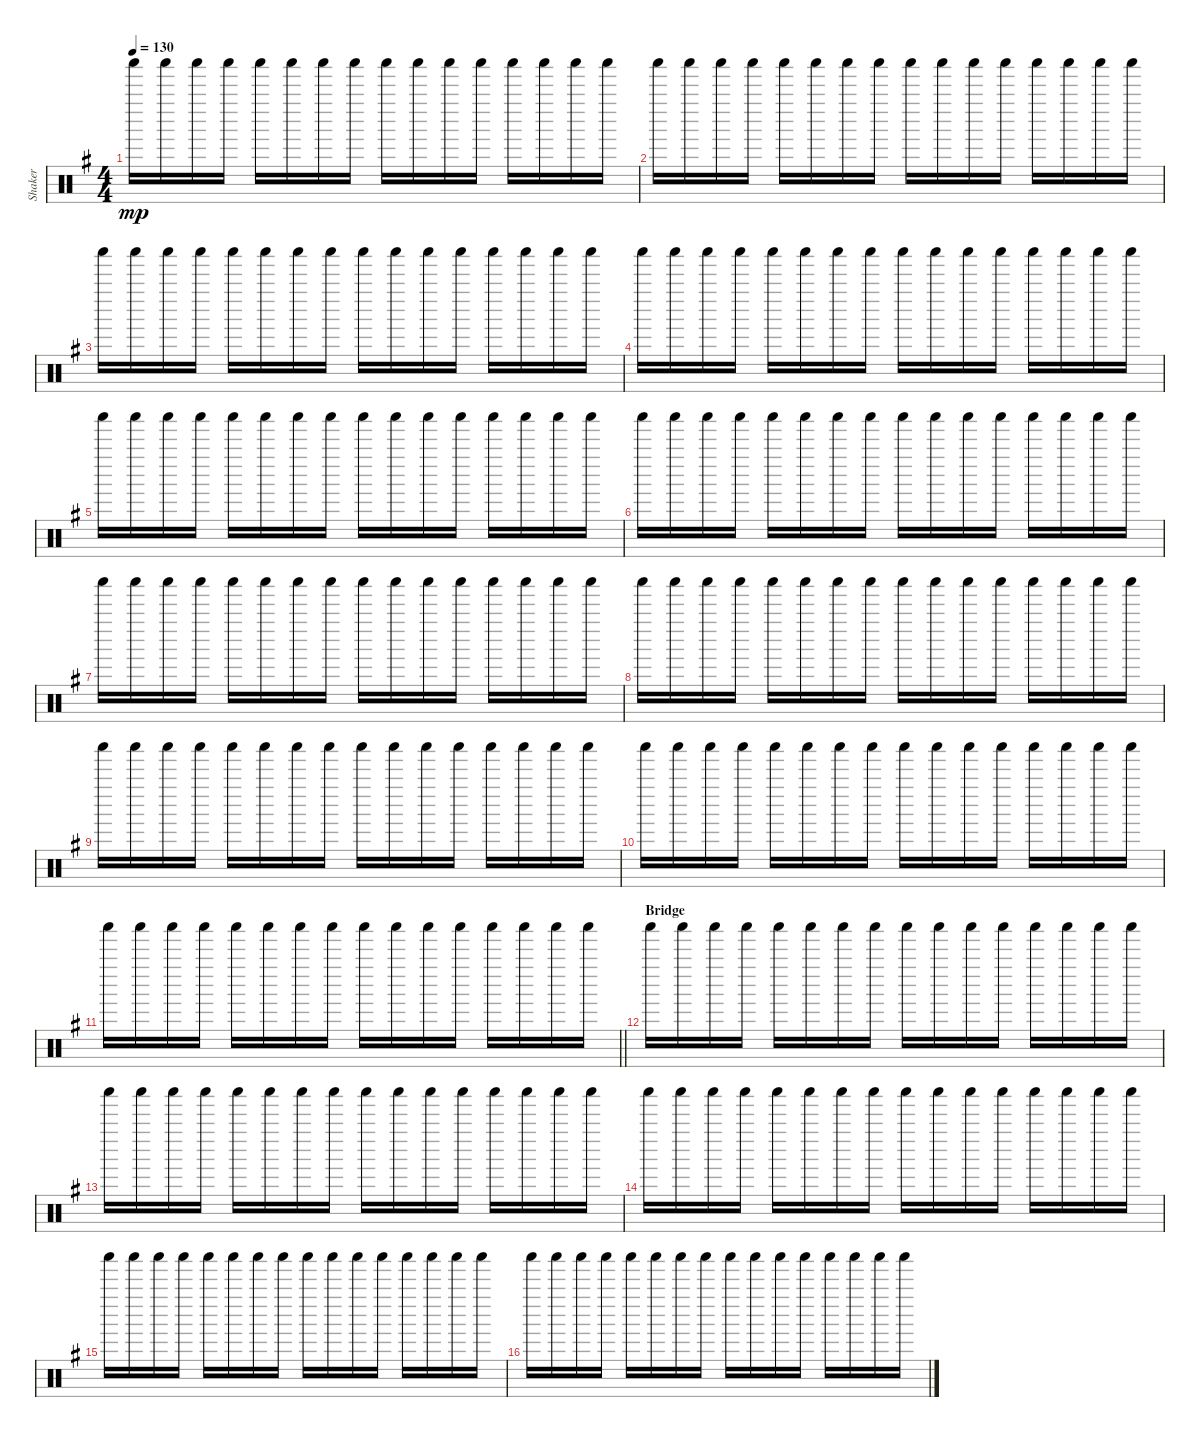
\track ("Shaker" "Shaker") {instrument percussion}
\staff {score}
\articulation defaults
\ts (4 4)
\tempo 130
\clef neutral
\ks g "Shaker (hit)".16{dy mp} "Shaker (hit)".16 "Shaker (hit)".16 "Shaker (hit)".16 "Shaker (hit)".16 "Shaker (hit)".16 "Shaker (hit)".16 "Shaker (hit)".16 "Shaker (hit)".16 "Shaker (hit)".16 "Shaker (hit)".16 "Shaker (hit)".16 "Shaker (hit)".16 "Shaker (hit)".16 "Shaker (hit)".16 "Shaker (hit)".16
|
"Shaker (hit)".16 "Shaker (hit)".16 "Shaker (hit)".16 "Shaker (hit)".16 "Shaker (hit)".16 "Shaker (hit)".16 "Shaker (hit)".16 "Shaker (hit)".16 "Shaker (hit)".16 "Shaker (hit)".16 "Shaker (hit)".16 "Shaker (hit)".16 "Shaker (hit)".16 "Shaker (hit)".16 "Shaker (hit)".16 "Shaker (hit)".16 |
"Shaker (hit)".16 "Shaker (hit)".16 "Shaker (hit)".16 "Shaker (hit)".16 "Shaker (hit)".16 "Shaker (hit)".16 "Shaker (hit)".16 "Shaker (hit)".16 "Shaker (hit)".16 "Shaker (hit)".16 "Shaker (hit)".16 "Shaker (hit)".16 "Shaker (hit)".16 "Shaker (hit)".16 "Shaker (hit)".16 "Shaker (hit)".16 |
"Shaker (hit)".16 "Shaker (hit)".16 "Shaker (hit)".16 "Shaker (hit)".16 "Shaker (hit)".16 "Shaker (hit)".16 "Shaker (hit)".16 "Shaker (hit)".16 "Shaker (hit)".16 "Shaker (hit)".16 "Shaker (hit)".16 "Shaker (hit)".16 "Shaker (hit)".16 "Shaker (hit)".16 "Shaker (hit)".16 "Shaker (hit)".16 |
"Shaker (hit)".16 "Shaker (hit)".16 "Shaker (hit)".16 "Shaker (hit)".16 "Shaker (hit)".16 "Shaker (hit)".16 "Shaker (hit)".16 "Shaker (hit)".16 "Shaker (hit)".16 "Shaker (hit)".16 "Shaker (hit)".16 "Shaker (hit)".16 "Shaker (hit)".16 "Shaker (hit)".16 "Shaker (hit)".16 "Shaker (hit)".16 |
"Shaker (hit)".16 "Shaker (hit)".16 "Shaker (hit)".16 "Shaker (hit)".16 "Shaker (hit)".16 "Shaker (hit)".16 "Shaker (hit)".16 "Shaker (hit)".16 "Shaker (hit)".16 "Shaker (hit)".16 "Shaker (hit)".16 "Shaker (hit)".16 "Shaker (hit)".16 "Shaker (hit)".16 "Shaker (hit)".16 "Shaker (hit)".16 |
"Shaker (hit)".16 "Shaker (hit)".16 "Shaker (hit)".16 "Shaker (hit)".16 "Shaker (hit)".16 "Shaker (hit)".16 "Shaker (hit)".16 "Shaker (hit)".16 "Shaker (hit)".16 "Shaker (hit)".16 "Shaker (hit)".16 "Shaker (hit)".16 "Shaker (hit)".16 "Shaker (hit)".16 "Shaker (hit)".16 "Shaker (hit)".16 |
"Shaker (hit)".16 "Shaker (hit)".16 "Shaker (hit)".16 "Shaker (hit)".16 "Shaker (hit)".16 "Shaker (hit)".16 "Shaker (hit)".16 "Shaker (hit)".16 "Shaker (hit)".16 "Shaker (hit)".16 "Shaker (hit)".16 "Shaker (hit)".16 "Shaker (hit)".16 "Shaker (hit)".16 "Shaker (hit)".16 "Shaker (hit)".16 |
"Shaker (hit)".16 "Shaker (hit)".16 "Shaker (hit)".16 "Shaker (hit)".16 "Shaker (hit)".16 "Shaker (hit)".16 "Shaker (hit)".16 "Shaker (hit)".16 "Shaker (hit)".16 "Shaker (hit)".16 "Shaker (hit)".16 "Shaker (hit)".16 "Shaker (hit)".16 "Shaker (hit)".16 "Shaker (hit)".16 "Shaker (hit)".16 |
"Shaker (hit)".16 "Shaker (hit)".16 "Shaker (hit)".16 "Shaker (hit)".16 "Shaker (hit)".16 "Shaker (hit)".16 "Shaker (hit)".16 "Shaker (hit)".16 "Shaker (hit)".16 "Shaker (hit)".16 "Shaker (hit)".16 "Shaker (hit)".16 "Shaker (hit)".16 "Shaker (hit)".16 "Shaker (hit)".16 "Shaker (hit)".16 |
\barLineRight lightlight "Shaker (hit)".16 "Shaker (hit)".16 "Shaker (hit)".16 "Shaker (hit)".16 "Shaker (hit)".16 "Shaker (hit)".16 "Shaker (hit)".16 "Shaker (hit)".16 "Shaker (hit)".16 "Shaker (hit)".16 "Shaker (hit)".16 "Shaker (hit)".16 "Shaker (hit)".16 "Shaker (hit)".16 "Shaker (hit)".16 "Shaker (hit)".16
|
\section ("" "Bridge")
"Shaker (hit)".16 "Shaker (hit)".16 "Shaker (hit)".16 "Shaker (hit)".16 "Shaker (hit)".16 "Shaker (hit)".16 "Shaker (hit)".16 "Shaker (hit)".16 "Shaker (hit)".16 "Shaker (hit)".16 "Shaker (hit)".16 "Shaker (hit)".16 "Shaker (hit)".16 "Shaker (hit)".16 "Shaker (hit)".16 "Shaker (hit)".16 |
"Shaker (hit)".16 "Shaker (hit)".16 "Shaker (hit)".16 "Shaker (hit)".16 "Shaker (hit)".16 "Shaker (hit)".16 "Shaker (hit)".16 "Shaker (hit)".16 "Shaker (hit)".16 "Shaker (hit)".16 "Shaker (hit)".16 "Shaker (hit)".16 "Shaker (hit)".16 "Shaker (hit)".16 "Shaker (hit)".16 "Shaker (hit)".16 |
"Shaker (hit)".16 "Shaker (hit)".16 "Shaker (hit)".16 "Shaker (hit)".16 "Shaker (hit)".16 "Shaker (hit)".16 "Shaker (hit)".16 "Shaker (hit)".16 "Shaker (hit)".16 "Shaker (hit)".16 "Shaker (hit)".16 "Shaker (hit)".16 "Shaker (hit)".16 "Shaker (hit)".16 "Shaker (hit)".16 "Shaker (hit)".16 |
"Shaker (hit)".16 "Shaker (hit)".16 "Shaker (hit)".16 "Shaker (hit)".16 "Shaker (hit)".16 "Shaker (hit)".16 "Shaker (hit)".16 "Shaker (hit)".16 "Shaker (hit)".16 "Shaker (hit)".16 "Shaker (hit)".16 "Shaker (hit)".16 "Shaker (hit)".16 "Shaker (hit)".16 "Shaker (hit)".16 "Shaker (hit)".16 |
"Shaker (hit)".16 "Shaker (hit)".16 "Shaker (hit)".16 "Shaker (hit)".16 "Shaker (hit)".16 "Shaker (hit)".16 "Shaker (hit)".16 "Shaker (hit)".16 "Shaker (hit)".16 "Shaker (hit)".16 "Shaker (hit)".16 "Shaker (hit)".16 "Shaker (hit)".16 "Shaker (hit)".16 "Shaker (hit)".16 "Shaker (hit)".16
